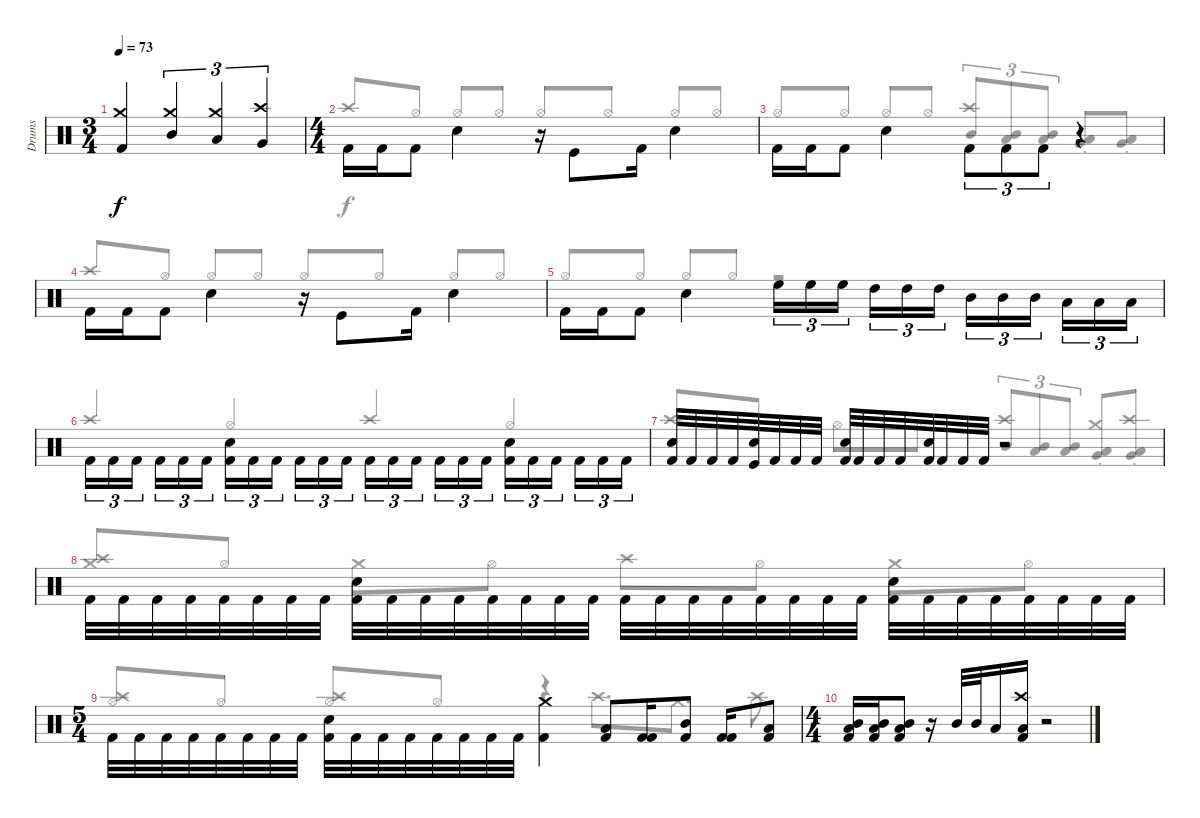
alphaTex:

\track ("Drums" "Drums") {instrument percussion}
\staff {score}
\articulation defaults
\voice
\ts (3 4)
\tempo 73
\clef neutral
\ks c
("Crash medium (hit)" "Kick (hit) 2").4{dy f beam Up} ("Mid Tom (hit)" "Crash medium (hit)").4{tu (3 2) beam Up} ("Low Tom (hit)" "Crash medium (hit)").4{tu (3 2) beam Up} ("Very Low Tom (hit)" "Crash high (hit)").4{tu (3 2) beam Up} |
\ts (4 4)
"Kick (hit) 2".16{beam Down} "Kick (hit) 2".16{beam Down} "Kick (hit) 2".8{beam Down} "Snare (hit) 2".4{beam Down} r.16 "Kick (hit)".8{beam Down} "Kick (hit) 2".16{beam Down} "Snare (hit) 2".4{beam Down} |
"Kick (hit) 2".16{beam Down} "Kick (hit) 2".16{beam Down} "Kick (hit) 2".8{beam Down} "Snare (hit) 2".4{beam Down} "Kick (hit) 2".8{tu (3 2) beam Down} "Kick (hit) 2".8{tu (3 2) beam Down} "Kick (hit) 2".8{tu (3 2) beam Down} r.4 |
"Kick (hit) 2".16{beam Down} "Kick (hit) 2".16{beam Down} "Kick (hit) 2".8{beam Down} "Snare (hit) 2".4{beam Down} r.16 "Kick (hit)".8{beam Down} "Kick (hit) 2".16{beam Down} "Snare (hit) 2".4{beam Down} |
"Kick (hit) 2".16{beam Down} "Kick (hit) 2".16{beam Down} "Kick (hit) 2".8{beam Down} "Snare (hit) 2".4{beam Down} "High Floor Tom (hit)".16{tu (3 2) beam Down} "High Floor Tom (hit)".16{tu (3 2) beam Down} "High Floor Tom (hit)".16{tu (3 2) beam Down beam splitsecondary} "High Tom (hit)".16{tu (3 2) beam Down} "High Tom (hit)".16{tu (3 2) beam Down} "High Tom (hit)".16{tu (3 2) beam Down} "Mid Tom (hit)".16{tu (3 2) beam Down} "Mid Tom (hit)".16{tu (3 2) beam Down} "Mid Tom (hit)".16{tu (3 2) beam Down beam splitsecondary} "Low Tom (hit)".16{tu (3 2) beam Down} "Low Tom (hit)".16{tu (3 2) beam Down} "Low Tom (hit)".16{tu (3 2) beam Down} |
"Kick (hit) 2".16{tu (3 2) beam Down} "Kick (hit) 2".16{tu (3 2) beam Down} "Kick (hit) 2".16{tu (3 2) beam Down beam splitsecondary} "Kick (hit) 2".16{tu (3 2) beam Down} "Kick (hit) 2".16{tu (3 2) beam Down} "Kick (hit) 2".16{tu (3 2) beam Down} ("Kick (hit) 2" "Snare (hit) 2").16{tu (3 2) beam Down} "Kick (hit) 2".16{tu (3 2) beam Down} "Kick (hit) 2".16{tu (3 2) beam Down beam splitsecondary} "Kick (hit) 2".16{tu (3 2) beam Down} "Kick (hit) 2".16{tu (3 2) beam Down} "Kick (hit) 2".16{tu (3 2) beam Down} "Kick (hit) 2".16{tu (3 2) beam Down} "Kick (hit) 2".16{tu (3 2) beam Down} "Kick (hit) 2".16{tu (3 2) beam Down beam splitsecondary} "Kick (hit) 2".16{tu (3 2) beam Down} "Kick (hit) 2".16{tu (3 2) beam Down} "Kick (hit) 2".16{tu (3 2) beam Down} ("Kick (hit) 2" "Snare (hit) 2").16{tu (3 2) beam Down} "Kick (hit) 2".16{tu (3 2) beam Down} "Kick (hit) 2".16{tu (3 2) beam Down beam splitsecondary} "Kick (hit) 2".16{tu (3 2) beam Down} "Kick (hit) 2".16{tu (3 2) beam Down} "Kick (hit) 2".16{tu (3 2) beam Down} |
("Snare (hit) 2" "Kick (hit) 2").32 "Kick (hit) 2".32 "Kick (hit) 2".32 "Kick (hit) 2".32 ("Snare (hit) 2" "Kick (hit)").32 "Kick (hit) 2".32 "Kick (hit) 2".32 "Kick (hit) 2".32 ("Kick (hit) 2" "Snare (hit) 2").32 "Kick (hit) 2".32 "Kick (hit) 2".32 "Kick (hit) 2".32 ("Kick (hit) 2" "Snare (hit) 2").32 "Kick (hit) 2".32 "Kick (hit) 2".32 "Kick (hit) 2".32 r.2 |
"Kick (hit) 2".32{beam Down} "Kick (hit) 2".32{beam Down} "Kick (hit) 2".32{beam Down} "Kick (hit) 2".32{beam Down} "Kick (hit) 2".32{beam Down} "Kick (hit) 2".32{beam Down} "Kick (hit) 2".32{beam Down} "Kick (hit) 2".32{beam Down} ("Kick (hit) 2" "Snare (hit) 2").32{beam Down} "Kick (hit) 2".32{beam Down} "Kick (hit) 2".32{beam Down} "Kick (hit) 2".32{beam Down} "Kick (hit) 2".32{beam Down} "Kick (hit) 2".32{beam Down} "Kick (hit) 2".32{beam Down} "Kick (hit) 2".32{beam Down} "Kick (hit) 2".32{beam Down} "Kick (hit) 2".32{beam Down} "Kick (hit) 2".32{beam Down} "Kick (hit) 2".32{beam Down} "Kick (hit) 2".32{beam Down} "Kick (hit) 2".32{beam Down} "Kick (hit) 2".32{beam Down} "Kick (hit) 2".32{beam Down} ("Kick (hit) 2" "Snare (hit) 2").32{beam Down} "Kick (hit) 2".32{beam Down} "Kick (hit) 2".32{beam Down} "Kick (hit) 2".32{beam Down} "Kick (hit) 2".32{beam Down} "Kick (hit) 2".32{beam Down} "Kick (hit) 2".32{beam Down} "Kick (hit) 2".32{beam Down} |
\ts (5 4)
"Kick (hit) 2".32{beam Down} "Kick (hit) 2".32{beam Down} "Kick (hit) 2".32{beam Down} "Kick (hit) 2".32{beam Down} "Kick (hit) 2".32{beam Down} "Kick (hit) 2".32{beam Down} "Kick (hit) 2".32{beam Down} "Kick (hit) 2".32{beam Down} ("Kick (hit) 2" "Snare (hit) 2").32{beam Down} "Kick (hit) 2".32{beam Down} "Kick (hit) 2".32{beam Down} "Kick (hit) 2".32{beam Down} "Kick (hit) 2".32{beam Down} "Kick (hit) 2".32{beam Down} "Kick (hit) 2".32{beam Down} "Kick (hit) 2".32{beam Down} ("Crash medium (hit)" "Kick (hit) 2").4{beam Down} ("Kick (hit) 2" "Low Tom (hit)").8 ("Kick (hit) 2" "Kick (hit) 2").16 ("Kick (hit) 2" "Mid Tom (hit)").8 ("Kick (hit) 2" "Kick (hit) 2").16 ("Kick (hit) 2" "Low Tom (hit)").8 |
\ts (4 4)
("Kick (hit) 2" "Mid Tom (hit)" "Low Tom (hit)").16{beam Up} ("Kick (hit) 2" "Mid Tom (hit)" "Low Tom (hit)").16{beam Up} ("Kick (hit) 2" "Mid Tom (hit)" "Low Tom (hit)").8{beam Up} r.16 "Mid Tom (hit)".32{beam Up} "Mid Tom (hit)".32{beam Up} "Low Tom (hit)".16{beam Up} ("Low Tom (hit)" "Kick (hit) 2" "Crash high (hit)").16{beam Up} r.2
\voice
\clef neutral
\ottava regular
\simile none
\ks c
|
"Crash high (hit)".8{beam Up} "Hi-Hat (open)".8{beam Up} "Hi-Hat (open)".8{beam Up} "Hi-Hat (open)".8{beam Up} "Hi-Hat (open)".8{beam Up} "Hi-Hat (open)".8{beam Up} "Hi-Hat (open)".8{beam Up} "Hi-Hat (open)".8{beam Up} |
"Hi-Hat (open)".8{beam Up} "Hi-Hat (open)".8{beam Up} "Hi-Hat (open)".8{beam Up} "Hi-Hat (open)".8{beam Up} ("Crash high (hit)" "Mid Tom (hit)").8{tu (3 2) beam Up} ("Mid Tom (hit)" "Low Tom (hit)").8{tu (3 2) beam Up} ("Mid Tom (hit)" "Low Tom (hit)").8{tu (3 2) beam Up} ("Very Low Tom (hit)"{st} "Low Tom (hit)"{st}).8{beam Up} ("Low Tom (hit)"{st} "Very Low Tom (hit)"{st}).8{beam Up} |
"Crash high (hit)".8{beam Up} "Hi-Hat (open)".8{beam Up} "Hi-Hat (open)".8{beam Up} "Hi-Hat (open)".8{beam Up} "Hi-Hat (open)".8{beam Up} "Hi-Hat (open)".8{beam Up} "Hi-Hat (open)".8{beam Up} "Hi-Hat (open)".8{beam Up} |
"Hi-Hat (open)".8{beam Up} "Hi-Hat (open)".8{beam Up} "Hi-Hat (open)".8{beam Up} "Hi-Hat (open)".8{beam Up} r.2 |
"Crash high (hit)".4{beam Up} "Hi-Hat (open)".4{beam Up} "Crash high (hit)".4{beam Up} "Hi-Hat (open)".4{beam Up} |
"Crash high (hit)".8{beam Up} "Hi-Hat (open)".8{beam Up} "Hi-Hat (open)".8 "Hi-Hat (open)".8 ("Crash high (hit)" "Mid Tom (hit)").8{tu (3 2) beam Up} ("Mid Tom (hit)" "Low Tom (hit)").8{tu (3 2) beam Up} ("Mid Tom (hit)" "Low Tom (hit)").8{tu (3 2) beam Up} ("Very Low Tom (hit)"{st} "Low Tom (hit)"{st} "Crash medium (hit)").8{beam Up} ("Low Tom (hit)"{st} "Very Low Tom (hit)"{st} "Crash high (hit)").8{beam Up} |
("Crash high (hit)" "Crash medium (hit)").8{beam Up} "Hi-Hat (open)".8{beam Up} "Crash medium (hit)".8 "Hi-Hat (open)".8 "Crash high (hit)".8 "Hi-Hat (open)".8 "Crash medium (hit)".8 "Hi-Hat (open)".8 |
("Hi-Hat (open)" "Crash high (hit)").8{beam Up} "Hi-Hat (open)".8{beam Up} ("Hi-Hat (open)" "Crash high (hit)").8{beam Up} "Hi-Hat (open)".8{beam Up} r.4{beam Up} "Crash high (hit)".8{d} "Crash medium (hit)".8{d} "Crash high (hit)".8 |
